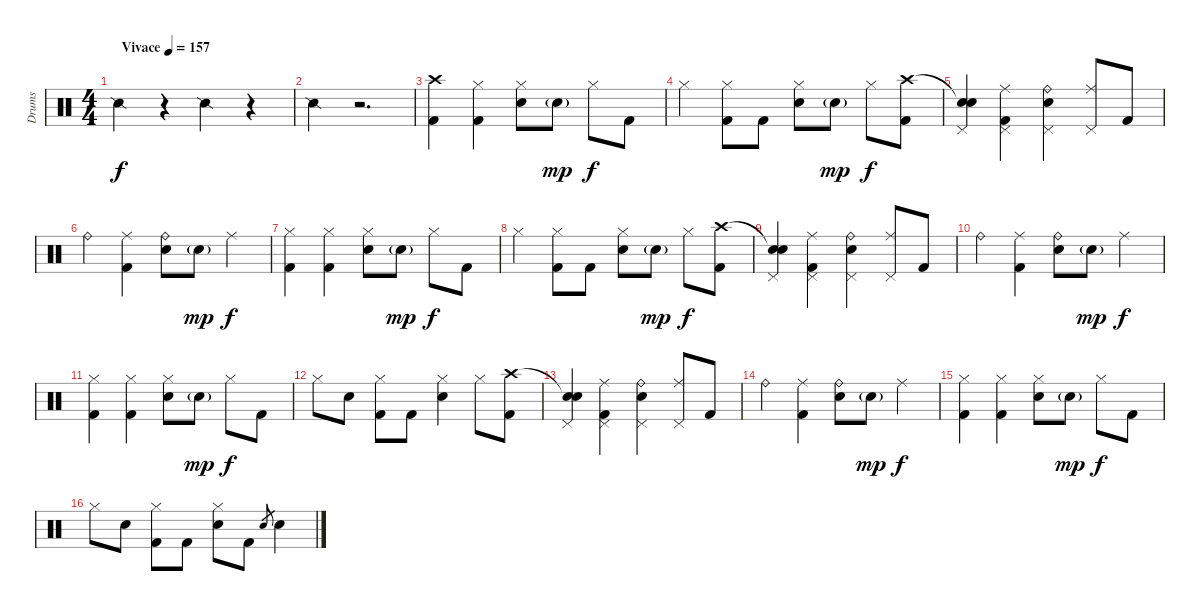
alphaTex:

\track ("Drums" "Drums") {instrument percussion}
\staff {score}
\articulation defaults
\ts (4 4)
\tempo (157 "Vivace")
\clef neutral
\ks c "Snare (side stick) 2".4{dy f}
r.4 "Snare (side stick) 2".4 r.4 |
"Snare (side stick) 2".4 r.2{d} |
("Crash high (hit)" "Kick (hit) 2").4 ("Hi-Hat (closed)" "Kick (hit) 2").4 ("Hi-Hat (closed)" "Snare (hit) 2").8 "Snare (hit) 2"{g}.8{dy mp} "Hi-Hat (closed)".8{dy f} "Kick (hit) 2".8 |
"Hi-Hat (closed)".4 ("Hi-Hat (closed)" "Kick (hit) 2").8 "Kick (hit) 2".8 ("Hi-Hat (closed)" "Snare (hit) 2").8 "Snare (hit) 2"{g}.8{dy mp} "Hi-Hat (closed)".8{dy f} ("Crash high (hit)" "Kick (hit) 2").8 |
("Snare (hit)"{t} "Pedal Hi-Hat (hit)" "Snare (hit)").4 ("Ride (middle)" "Pedal Hi-Hat (hit)" "Kick (hit) 2").4 ("Ride (bell)" "Snare (hit) 2" "Pedal Hi-Hat (hit)").4 ("Ride (middle)" "Pedal Hi-Hat (hit)").8 "Kick (hit) 2".8 |
"Ride (bell)".4 ("Ride (middle)" "Kick (hit) 2").4 ("Ride (bell)" "Snare (hit) 2").8 "Snare (hit) 2"{g}.8{dy mp} "Ride (middle)".4{dy f} |
("Hi-Hat (closed)" "Kick (hit) 2").4 ("Hi-Hat (closed)" "Kick (hit) 2").4 ("Hi-Hat (closed)" "Snare (hit) 2").8 "Snare (hit) 2"{g}.8{dy mp} "Hi-Hat (closed)".8{dy f} "Kick (hit) 2".8 |
"Hi-Hat (closed)".4 ("Hi-Hat (closed)" "Kick (hit) 2").8 "Kick (hit) 2".8 ("Hi-Hat (closed)" "Snare (hit) 2").8 "Snare (hit) 2"{g}.8{dy mp} "Hi-Hat (closed)".8{dy f} ("Crash high (hit)" "Kick (hit) 2").8 |
("Snare (hit)"{t} "Pedal Hi-Hat (hit)" "Snare (hit)").4 ("Ride (middle)" "Pedal Hi-Hat (hit)" "Kick (hit) 2").4 ("Ride (bell)" "Snare (hit) 2" "Pedal Hi-Hat (hit)").4 ("Ride (middle)" "Pedal Hi-Hat (hit)").8 "Kick (hit) 2".8 |
"Ride (bell)".4 ("Ride (middle)" "Kick (hit) 2").4 ("Ride (bell)" "Snare (hit) 2").8 "Snare (hit) 2"{g}.8{dy mp} "Ride (middle)".4{dy f} |
("Hi-Hat (closed)" "Kick (hit) 2").4 ("Hi-Hat (closed)" "Kick (hit) 2").4 ("Hi-Hat (closed)" "Snare (hit) 2").8 "Snare (hit) 2"{g}.8{dy mp} "Hi-Hat (closed)".8{dy f} "Kick (hit) 2".8 |
"Hi-Hat (closed)".8 "Snare (hit) 2".8 ("Hi-Hat (closed)" "Kick (hit) 2").8 "Kick (hit) 2".8 ("Hi-Hat (closed)" "Snare (hit) 2").4 "Hi-Hat (closed)".8 ("Crash high (hit)" "Kick (hit) 2").8 |
("Snare (hit)"{t} "Pedal Hi-Hat (hit)" "Snare (hit)").4 ("Ride (middle)" "Pedal Hi-Hat (hit)" "Kick (hit) 2").4 ("Ride (bell)" "Snare (hit) 2" "Pedal Hi-Hat (hit)").4 ("Ride (middle)" "Pedal Hi-Hat (hit)").8 "Kick (hit) 2".8 |
"Ride (bell)".4 ("Ride (middle)" "Kick (hit) 2").4 ("Ride (bell)" "Snare (hit) 2").8 "Snare (hit) 2"{g}.8{dy mp} "Ride (middle)".4{dy f} |
("Hi-Hat (closed)" "Kick (hit) 2").4 ("Hi-Hat (closed)" "Kick (hit) 2").4 ("Hi-Hat (closed)" "Snare (hit) 2").8 "Snare (hit) 2"{g}.8{dy mp} "Hi-Hat (closed)".8{dy f} "Kick (hit) 2".8 |
"Hi-Hat (closed)".8 "Snare (hit) 2".8 ("Hi-Hat (closed)" "Kick (hit) 2").8 "Kick (hit) 2".8 ("Hi-Hat (closed)" "Snare (hit) 2").8 "Kick (hit) 2".8 "Snare (hit) 2".8{gr} "Snare (hit) 2".4
